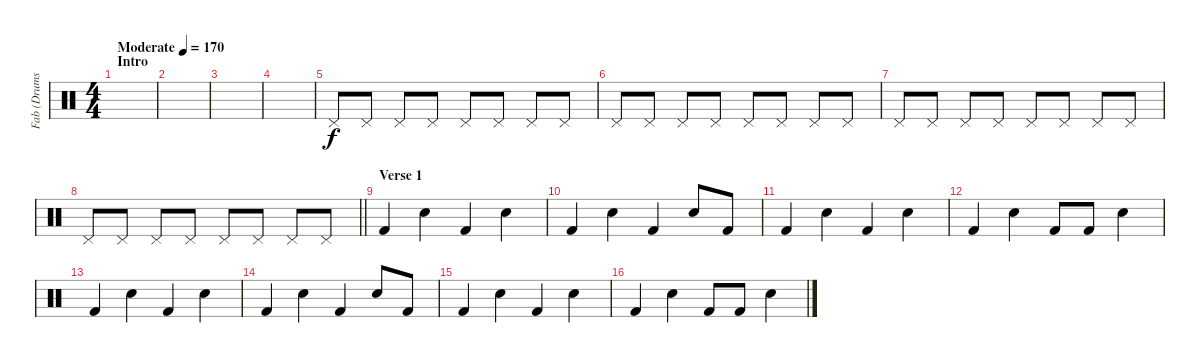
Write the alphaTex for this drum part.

\track ("Fab (Drums)" "Fab (Drums") {instrument percussion}
\staff {score}
\articulation defaults
\ts (4 4)
\section ("" "Intro")
\tempo (170 "Moderate")
\clef neutral
\ks c
|
|
|
|
"Pedal Hi-Hat (hit)".8 "Pedal Hi-Hat (hit)".8 "Pedal Hi-Hat (hit)".8 "Pedal Hi-Hat (hit)".8 "Pedal Hi-Hat (hit)".8 "Pedal Hi-Hat (hit)".8 "Pedal Hi-Hat (hit)".8 "Pedal Hi-Hat (hit)".8 |
"Pedal Hi-Hat (hit)".8 "Pedal Hi-Hat (hit)".8 "Pedal Hi-Hat (hit)".8 "Pedal Hi-Hat (hit)".8 "Pedal Hi-Hat (hit)".8 "Pedal Hi-Hat (hit)".8 "Pedal Hi-Hat (hit)".8 "Pedal Hi-Hat (hit)".8 |
"Pedal Hi-Hat (hit)".8 "Pedal Hi-Hat (hit)".8 "Pedal Hi-Hat (hit)".8 "Pedal Hi-Hat (hit)".8 "Pedal Hi-Hat (hit)".8 "Pedal Hi-Hat (hit)".8 "Pedal Hi-Hat (hit)".8 "Pedal Hi-Hat (hit)".8 |
\barLineRight lightlight "Pedal Hi-Hat (hit)".8 "Pedal Hi-Hat (hit)".8 "Pedal Hi-Hat (hit)".8 "Pedal Hi-Hat (hit)".8 "Pedal Hi-Hat (hit)".8 "Pedal Hi-Hat (hit)".8 "Pedal Hi-Hat (hit)".8 "Pedal Hi-Hat (hit)".8
|
\section ("" "Verse 1")
"Kick (hit) 2".4 "Electric Snare (hit)".4 "Kick (hit) 2".4 "Electric Snare (hit)".4 |
"Kick (hit) 2".4 "Electric Snare (hit)".4 "Kick (hit) 2".4 "Electric Snare (hit)".8 "Kick (hit) 2".8 |
"Kick (hit) 2".4 "Electric Snare (hit)".4 "Kick (hit) 2".4 "Electric Snare (hit)".4 |
"Kick (hit) 2".4 "Electric Snare (hit)".4 "Kick (hit) 2".8 "Kick (hit) 2".8 "Electric Snare (hit)".4 |
"Kick (hit) 2".4 "Electric Snare (hit)".4 "Kick (hit) 2".4 "Electric Snare (hit)".4 |
"Kick (hit) 2".4 "Electric Snare (hit)".4 "Kick (hit) 2".4 "Electric Snare (hit)".8 "Kick (hit) 2".8 |
"Kick (hit) 2".4 "Electric Snare (hit)".4 "Kick (hit) 2".4 "Electric Snare (hit)".4 |
"Kick (hit) 2".4 "Electric Snare (hit)".4 "Kick (hit) 2".8 "Kick (hit) 2".8 "Electric Snare (hit)".4
